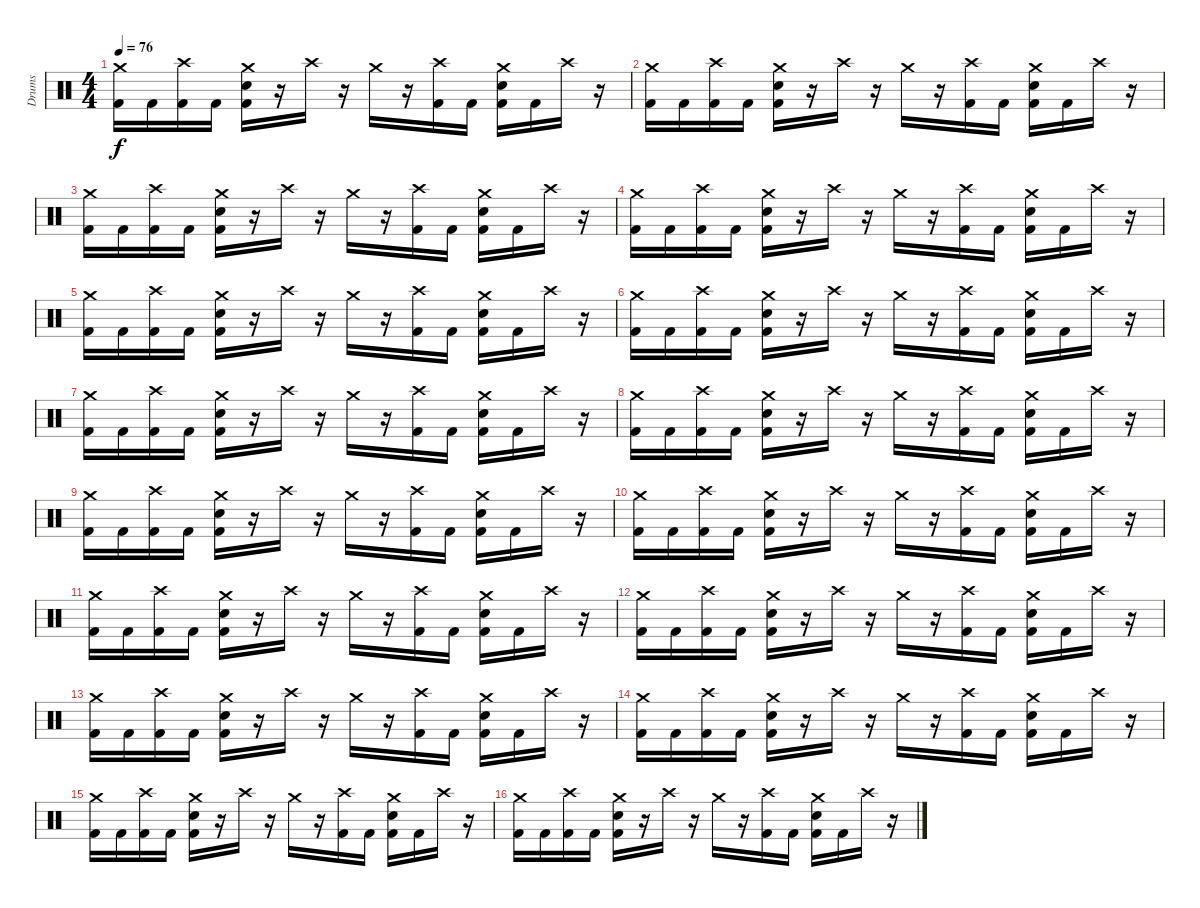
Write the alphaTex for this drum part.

\track ("Drums" "Drums") {instrument percussion}
\staff {score}
\articulation defaults
\ts (4 4)
\tempo 76
\clef neutral
\ks c
("Crash medium (hit)" "Kick (hit) 2").16{dy f} "Kick (hit) 2".16 ("Crash high (hit)" "Kick (hit) 2").16 "Kick (hit) 2".16 ("Crash medium (hit)" "Electric Snare (hit)" "Kick (hit) 2").16 r.16 "Crash high (hit)".16 r.16 "Crash medium (hit)".16 r.16 ("Crash high (hit)" "Kick (hit) 2").16 "Kick (hit) 2".16 ("Crash medium (hit)" "Electric Snare (hit)" "Kick (hit) 2").16 "Kick (hit) 2".16 "Crash high (hit)".16 r.16 |
("Crash medium (hit)" "Kick (hit) 2").16 "Kick (hit) 2".16 ("Crash high (hit)" "Kick (hit) 2").16 "Kick (hit) 2".16 ("Crash medium (hit)" "Electric Snare (hit)" "Kick (hit) 2").16 r.16 "Crash high (hit)".16 r.16 "Crash medium (hit)".16 r.16 ("Crash high (hit)" "Kick (hit) 2").16 "Kick (hit) 2".16 ("Crash medium (hit)" "Electric Snare (hit)" "Kick (hit) 2").16 "Kick (hit) 2".16 "Crash high (hit)".16 r.16 |
("Crash medium (hit)" "Kick (hit) 2").16 "Kick (hit) 2".16 ("Crash high (hit)" "Kick (hit) 2").16 "Kick (hit) 2".16 ("Crash medium (hit)" "Electric Snare (hit)" "Kick (hit) 2").16 r.16 "Crash high (hit)".16 r.16 "Crash medium (hit)".16 r.16 ("Crash high (hit)" "Kick (hit) 2").16 "Kick (hit) 2".16 ("Crash medium (hit)" "Electric Snare (hit)" "Kick (hit) 2").16 "Kick (hit) 2".16 "Crash high (hit)".16 r.16 |
\section ("" "")
("Crash medium (hit)" "Kick (hit) 2").16 "Kick (hit) 2".16 ("Crash high (hit)" "Kick (hit) 2").16 "Kick (hit) 2".16 ("Crash medium (hit)" "Electric Snare (hit)" "Kick (hit) 2").16 r.16 "Crash high (hit)".16 r.16 "Crash medium (hit)".16 r.16 ("Crash high (hit)" "Kick (hit) 2").16 "Kick (hit) 2".16 ("Crash medium (hit)" "Electric Snare (hit)" "Kick (hit) 2").16 "Kick (hit) 2".16 "Crash high (hit)".16 r.16 |
("Crash medium (hit)" "Kick (hit) 2").16 "Kick (hit) 2".16 ("Crash high (hit)" "Kick (hit) 2").16 "Kick (hit) 2".16 ("Crash medium (hit)" "Electric Snare (hit)" "Kick (hit) 2").16 r.16 "Crash high (hit)".16 r.16 "Crash medium (hit)".16 r.16 ("Crash high (hit)" "Kick (hit) 2").16 "Kick (hit) 2".16 ("Crash medium (hit)" "Electric Snare (hit)" "Kick (hit) 2").16 "Kick (hit) 2".16 "Crash high (hit)".16 r.16 |
\section ("" "")
("Crash medium (hit)" "Kick (hit) 2").16 "Kick (hit) 2".16 ("Crash high (hit)" "Kick (hit) 2").16 "Kick (hit) 2".16 ("Crash medium (hit)" "Electric Snare (hit)" "Kick (hit) 2").16 r.16 "Crash high (hit)".16 r.16 "Crash medium (hit)".16 r.16 ("Crash high (hit)" "Kick (hit) 2").16 "Kick (hit) 2".16 ("Crash medium (hit)" "Electric Snare (hit)" "Kick (hit) 2").16 "Kick (hit) 2".16 "Crash high (hit)".16 r.16 |
("Crash medium (hit)" "Kick (hit) 2").16 "Kick (hit) 2".16 ("Crash high (hit)" "Kick (hit) 2").16 "Kick (hit) 2".16 ("Crash medium (hit)" "Electric Snare (hit)" "Kick (hit) 2").16 r.16 "Crash high (hit)".16 r.16 "Crash medium (hit)".16 r.16 ("Crash high (hit)" "Kick (hit) 2").16 "Kick (hit) 2".16 ("Crash medium (hit)" "Electric Snare (hit)" "Kick (hit) 2").16 "Kick (hit) 2".16 "Crash high (hit)".16 r.16 |
("Crash medium (hit)" "Kick (hit) 2").16 "Kick (hit) 2".16 ("Crash high (hit)" "Kick (hit) 2").16 "Kick (hit) 2".16 ("Crash medium (hit)" "Electric Snare (hit)" "Kick (hit) 2").16 r.16 "Crash high (hit)".16 r.16 "Crash medium (hit)".16 r.16 ("Crash high (hit)" "Kick (hit) 2").16 "Kick (hit) 2".16 ("Crash medium (hit)" "Electric Snare (hit)" "Kick (hit) 2").16 "Kick (hit) 2".16 "Crash high (hit)".16 r.16 |
("Crash medium (hit)" "Kick (hit) 2").16 "Kick (hit) 2".16 ("Crash high (hit)" "Kick (hit) 2").16 "Kick (hit) 2".16 ("Crash medium (hit)" "Electric Snare (hit)" "Kick (hit) 2").16 r.16 "Crash high (hit)".16 r.16 "Crash medium (hit)".16 r.16 ("Crash high (hit)" "Kick (hit) 2").16 "Kick (hit) 2".16 ("Crash medium (hit)" "Electric Snare (hit)" "Kick (hit) 2").16 "Kick (hit) 2".16 "Crash high (hit)".16 r.16 |
("Crash medium (hit)" "Kick (hit) 2").16 "Kick (hit) 2".16 ("Crash high (hit)" "Kick (hit) 2").16 "Kick (hit) 2".16 ("Crash medium (hit)" "Electric Snare (hit)" "Kick (hit) 2").16 r.16 "Crash high (hit)".16 r.16 "Crash medium (hit)".16 r.16 ("Crash high (hit)" "Kick (hit) 2").16 "Kick (hit) 2".16 ("Crash medium (hit)" "Electric Snare (hit)" "Kick (hit) 2").16 "Kick (hit) 2".16 "Crash high (hit)".16 r.16 |
("Crash medium (hit)" "Kick (hit) 2").16 "Kick (hit) 2".16 ("Crash high (hit)" "Kick (hit) 2").16 "Kick (hit) 2".16 ("Crash medium (hit)" "Electric Snare (hit)" "Kick (hit) 2").16 r.16 "Crash high (hit)".16 r.16 "Crash medium (hit)".16 r.16 ("Crash high (hit)" "Kick (hit) 2").16 "Kick (hit) 2".16 ("Crash medium (hit)" "Electric Snare (hit)" "Kick (hit) 2").16 "Kick (hit) 2".16 "Crash high (hit)".16 r.16 |
("Crash medium (hit)" "Kick (hit) 2").16 "Kick (hit) 2".16 ("Crash high (hit)" "Kick (hit) 2").16 "Kick (hit) 2".16 ("Crash medium (hit)" "Electric Snare (hit)" "Kick (hit) 2").16 r.16 "Crash high (hit)".16 r.16 "Crash medium (hit)".16 r.16 ("Crash high (hit)" "Kick (hit) 2").16 "Kick (hit) 2".16 ("Crash medium (hit)" "Electric Snare (hit)" "Kick (hit) 2").16 "Kick (hit) 2".16 "Crash high (hit)".16 r.16 |
("Crash medium (hit)" "Kick (hit) 2").16 "Kick (hit) 2".16 ("Crash high (hit)" "Kick (hit) 2").16 "Kick (hit) 2".16 ("Crash medium (hit)" "Electric Snare (hit)" "Kick (hit) 2").16 r.16 "Crash high (hit)".16 r.16 "Crash medium (hit)".16 r.16 ("Crash high (hit)" "Kick (hit) 2").16 "Kick (hit) 2".16 ("Crash medium (hit)" "Electric Snare (hit)" "Kick (hit) 2").16 "Kick (hit) 2".16 "Crash high (hit)".16 r.16 |
\section ("" "")
("Crash medium (hit)" "Kick (hit) 2").16 "Kick (hit) 2".16 ("Crash high (hit)" "Kick (hit) 2").16 "Kick (hit) 2".16 ("Crash medium (hit)" "Electric Snare (hit)" "Kick (hit) 2").16 r.16 "Crash high (hit)".16 r.16 "Crash medium (hit)".16 r.16 ("Crash high (hit)" "Kick (hit) 2").16 "Kick (hit) 2".16 ("Crash medium (hit)" "Electric Snare (hit)" "Kick (hit) 2").16 "Kick (hit) 2".16 "Crash high (hit)".16 r.16 |
("Crash medium (hit)" "Kick (hit) 2").16 "Kick (hit) 2".16 ("Crash high (hit)" "Kick (hit) 2").16 "Kick (hit) 2".16 ("Crash medium (hit)" "Electric Snare (hit)" "Kick (hit) 2").16 r.16 "Crash high (hit)".16 r.16 "Crash medium (hit)".16 r.16 ("Crash high (hit)" "Kick (hit) 2").16 "Kick (hit) 2".16 ("Crash medium (hit)" "Electric Snare (hit)" "Kick (hit) 2").16 "Kick (hit) 2".16 "Crash high (hit)".16 r.16 |
("Crash medium (hit)" "Kick (hit) 2").16 "Kick (hit) 2".16 ("Crash high (hit)" "Kick (hit) 2").16 "Kick (hit) 2".16 ("Crash medium (hit)" "Electric Snare (hit)" "Kick (hit) 2").16 r.16 "Crash high (hit)".16 r.16 "Crash medium (hit)".16 r.16 ("Crash high (hit)" "Kick (hit) 2").16 "Kick (hit) 2".16 ("Crash medium (hit)" "Electric Snare (hit)" "Kick (hit) 2").16 "Kick (hit) 2".16 "Crash high (hit)".16 r.16
